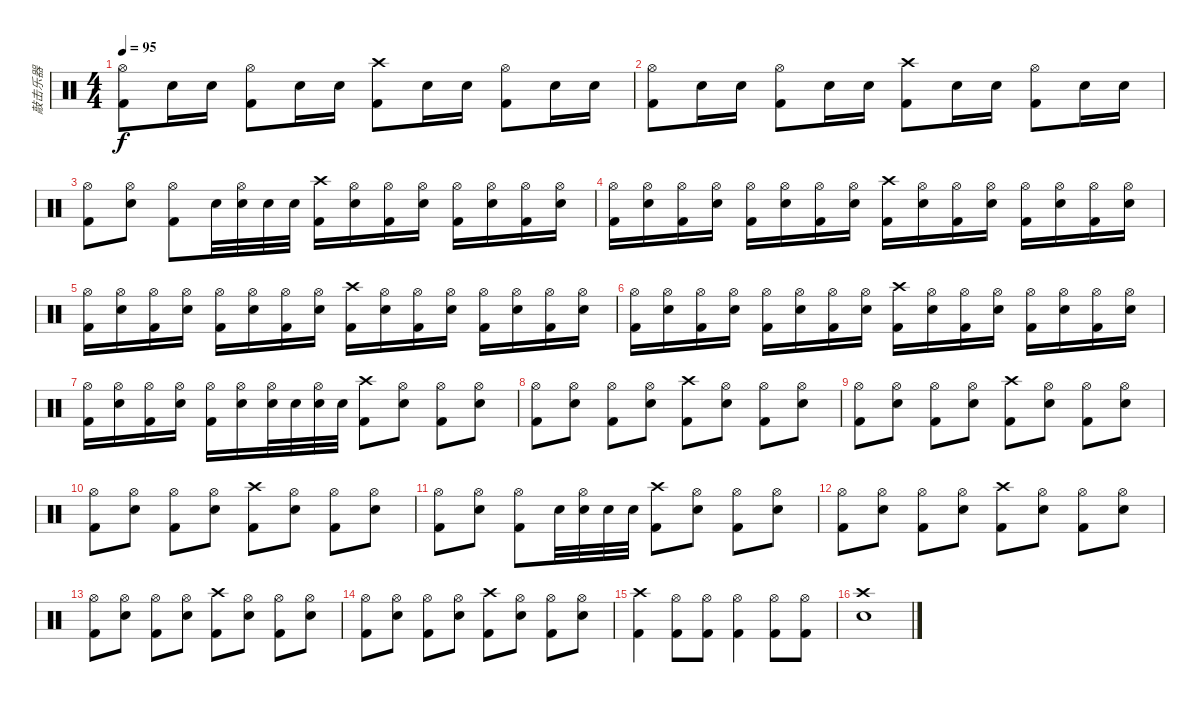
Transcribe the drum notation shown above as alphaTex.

\track ("敲击乐器" "敲击乐器") {instrument percussion}
\staff {score}
\articulation defaults
\ts (4 4)
\tempo 95
\clef neutral
\ks c
("Hi-Hat (open)" "Kick (hit) 2").8{dy f} "Snare (hit) 2".16 "Snare (hit) 2".16 ("Hi-Hat (open)" "Kick (hit) 2").8 "Snare (hit) 2".16 "Snare (hit) 2".16 ("Crash high (hit)" "Kick (hit) 2").8 "Snare (hit) 2".16 "Snare (hit) 2".16 ("Hi-Hat (open)" "Kick (hit) 2").8 "Snare (hit) 2".16 "Snare (hit) 2".16 |
("Hi-Hat (open)" "Kick (hit) 2").8 "Snare (hit) 2".16 "Snare (hit) 2".16 ("Hi-Hat (open)" "Kick (hit) 2").8 "Snare (hit) 2".16 "Snare (hit) 2".16 ("Crash high (hit)" "Kick (hit) 2").8 "Snare (hit) 2".16 "Snare (hit) 2".16 ("Hi-Hat (open)" "Kick (hit) 2").8 "Snare (hit) 2".16 "Snare (hit) 2".16 |
("Hi-Hat (open)" "Kick (hit) 2").8 ("Hi-Hat (open)" "Snare (hit) 2").8 ("Hi-Hat (open)" "Kick (hit) 2").8 "Snare (hit) 2".32 ("Hi-Hat (open)" "Snare (hit) 2").32 "Snare (hit) 2".32 "Snare (hit) 2".32 ("Crash high (hit)" "Kick (hit) 2").16 ("Hi-Hat (open)" "Snare (hit) 2").16 ("Hi-Hat (open)" "Kick (hit) 2").16 ("Hi-Hat (open)" "Snare (hit) 2").16 ("Hi-Hat (open)" "Kick (hit) 2").16 ("Hi-Hat (open)" "Snare (hit) 2").16 ("Hi-Hat (open)" "Kick (hit) 2").16 ("Hi-Hat (open)" "Snare (hit) 2").16 |
("Hi-Hat (open)" "Kick (hit) 2").16 ("Hi-Hat (open)" "Snare (hit) 2").16 ("Hi-Hat (open)" "Kick (hit) 2").16 ("Hi-Hat (open)" "Snare (hit) 2").16 ("Hi-Hat (open)" "Kick (hit) 2").16 ("Hi-Hat (open)" "Snare (hit) 2").16 ("Hi-Hat (open)" "Kick (hit) 2").16 ("Hi-Hat (open)" "Snare (hit) 2").16 ("Crash high (hit)" "Kick (hit) 2").16 ("Hi-Hat (open)" "Snare (hit) 2").16 ("Hi-Hat (open)" "Kick (hit) 2").16 ("Hi-Hat (open)" "Snare (hit) 2").16 ("Hi-Hat (open)" "Kick (hit) 2").16 ("Hi-Hat (open)" "Snare (hit) 2").16 ("Hi-Hat (open)" "Kick (hit) 2").16 ("Hi-Hat (open)" "Snare (hit) 2").16 |
("Hi-Hat (open)" "Kick (hit) 2").16 ("Hi-Hat (open)" "Snare (hit) 2").16 ("Hi-Hat (open)" "Kick (hit) 2").16 ("Hi-Hat (open)" "Snare (hit) 2").16 ("Hi-Hat (open)" "Kick (hit) 2").16 ("Hi-Hat (open)" "Snare (hit) 2").16 ("Hi-Hat (open)" "Kick (hit) 2").16 ("Hi-Hat (open)" "Snare (hit) 2").16 ("Crash high (hit)" "Kick (hit) 2").16 ("Hi-Hat (open)" "Snare (hit) 2").16 ("Hi-Hat (open)" "Kick (hit) 2").16 ("Hi-Hat (open)" "Snare (hit) 2").16 ("Hi-Hat (open)" "Kick (hit) 2").16 ("Hi-Hat (open)" "Snare (hit) 2").16 ("Hi-Hat (open)" "Kick (hit) 2").16 ("Hi-Hat (open)" "Snare (hit) 2").16 |
("Hi-Hat (open)" "Kick (hit) 2").16 ("Hi-Hat (open)" "Snare (hit) 2").16 ("Hi-Hat (open)" "Kick (hit) 2").16 ("Hi-Hat (open)" "Snare (hit) 2").16 ("Hi-Hat (open)" "Kick (hit) 2").16 ("Hi-Hat (open)" "Snare (hit) 2").16 ("Hi-Hat (open)" "Kick (hit) 2").16 ("Hi-Hat (open)" "Snare (hit) 2").16 ("Crash high (hit)" "Kick (hit) 2").16 ("Hi-Hat (open)" "Snare (hit) 2").16 ("Hi-Hat (open)" "Kick (hit) 2").16 ("Hi-Hat (open)" "Snare (hit) 2").16 ("Hi-Hat (open)" "Kick (hit) 2").16 ("Hi-Hat (open)" "Snare (hit) 2").16 ("Hi-Hat (open)" "Kick (hit) 2").16 ("Hi-Hat (open)" "Snare (hit) 2").16 |
("Hi-Hat (open)" "Kick (hit) 2").16 ("Hi-Hat (open)" "Snare (hit) 2").16 ("Hi-Hat (open)" "Kick (hit) 2").16 ("Hi-Hat (open)" "Snare (hit) 2").16 ("Hi-Hat (open)" "Kick (hit) 2").16 ("Hi-Hat (open)" "Snare (hit) 2").16 ("Hi-Hat (open)" "Snare (hit) 2").32 "Snare (hit) 2".32 ("Hi-Hat (open)" "Snare (hit) 2").32 "Snare (hit) 2".32 ("Crash high (hit)" "Kick (hit) 2").8 ("Hi-Hat (open)" "Snare (hit) 2").8 ("Hi-Hat (open)" "Kick (hit) 2").8 ("Hi-Hat (open)" "Snare (hit) 2").8 |
("Hi-Hat (open)" "Kick (hit) 2").8 ("Hi-Hat (open)" "Snare (hit) 2").8 ("Hi-Hat (open)" "Kick (hit) 2").8 ("Hi-Hat (open)" "Snare (hit) 2").8 ("Crash high (hit)" "Kick (hit) 2").8 ("Hi-Hat (open)" "Snare (hit) 2").8 ("Hi-Hat (open)" "Kick (hit) 2").8 ("Hi-Hat (open)" "Snare (hit) 2").8 |
("Hi-Hat (open)" "Kick (hit) 2").8 ("Hi-Hat (open)" "Snare (hit) 2").8 ("Hi-Hat (open)" "Kick (hit) 2").8 ("Hi-Hat (open)" "Snare (hit) 2").8 ("Crash high (hit)" "Kick (hit) 2").8 ("Hi-Hat (open)" "Snare (hit) 2").8 ("Hi-Hat (open)" "Kick (hit) 2").8 ("Hi-Hat (open)" "Snare (hit) 2").8 |
("Hi-Hat (open)" "Kick (hit) 2").8 ("Hi-Hat (open)" "Snare (hit) 2").8 ("Hi-Hat (open)" "Kick (hit) 2").8 ("Hi-Hat (open)" "Snare (hit) 2").8 ("Crash high (hit)" "Kick (hit) 2").8 ("Hi-Hat (open)" "Snare (hit) 2").8 ("Hi-Hat (open)" "Kick (hit) 2").8 ("Hi-Hat (open)" "Snare (hit) 2").8 |
("Hi-Hat (open)" "Kick (hit) 2").8 ("Hi-Hat (open)" "Snare (hit) 2").8 ("Hi-Hat (open)" "Kick (hit) 2").8 "Snare (hit) 2".32 ("Hi-Hat (open)" "Snare (hit) 2").32 "Snare (hit) 2".32 "Snare (hit) 2".32 ("Crash high (hit)" "Kick (hit) 2").8 ("Hi-Hat (open)" "Snare (hit) 2").8 ("Hi-Hat (open)" "Kick (hit) 2").8 ("Hi-Hat (open)" "Snare (hit) 2").8 |
("Hi-Hat (open)" "Kick (hit) 2").8 ("Hi-Hat (open)" "Snare (hit) 2").8 ("Hi-Hat (open)" "Kick (hit) 2").8 ("Hi-Hat (open)" "Snare (hit) 2").8 ("Crash high (hit)" "Kick (hit) 2").8 ("Hi-Hat (open)" "Snare (hit) 2").8 ("Hi-Hat (open)" "Kick (hit) 2").8 ("Hi-Hat (open)" "Snare (hit) 2").8 |
("Hi-Hat (open)" "Kick (hit) 2").8 ("Hi-Hat (open)" "Snare (hit) 2").8 ("Hi-Hat (open)" "Kick (hit) 2").8 ("Hi-Hat (open)" "Snare (hit) 2").8 ("Crash high (hit)" "Kick (hit) 2").8 ("Hi-Hat (open)" "Snare (hit) 2").8 ("Hi-Hat (open)" "Kick (hit) 2").8 ("Hi-Hat (open)" "Snare (hit) 2").8 |
("Hi-Hat (open)" "Kick (hit) 2").8 ("Hi-Hat (open)" "Snare (hit) 2").8 ("Hi-Hat (open)" "Kick (hit) 2").8 ("Hi-Hat (open)" "Snare (hit) 2").8 ("Crash high (hit)" "Kick (hit) 2").8 ("Hi-Hat (open)" "Snare (hit) 2").8 ("Hi-Hat (open)" "Kick (hit) 2").8 ("Hi-Hat (open)" "Snare (hit) 2").8 |
("Crash high (hit)" "Kick (hit) 2").4 ("Hi-Hat (open)" "Kick (hit) 2").8 ("Hi-Hat (open)" "Kick (hit) 2").8 ("Hi-Hat (open)" "Kick (hit) 2").4 ("Hi-Hat (open)" "Kick (hit) 2").8 ("Hi-Hat (open)" "Kick (hit) 2").8 |
("Crash high (hit)" "Snare (hit) 2").1
